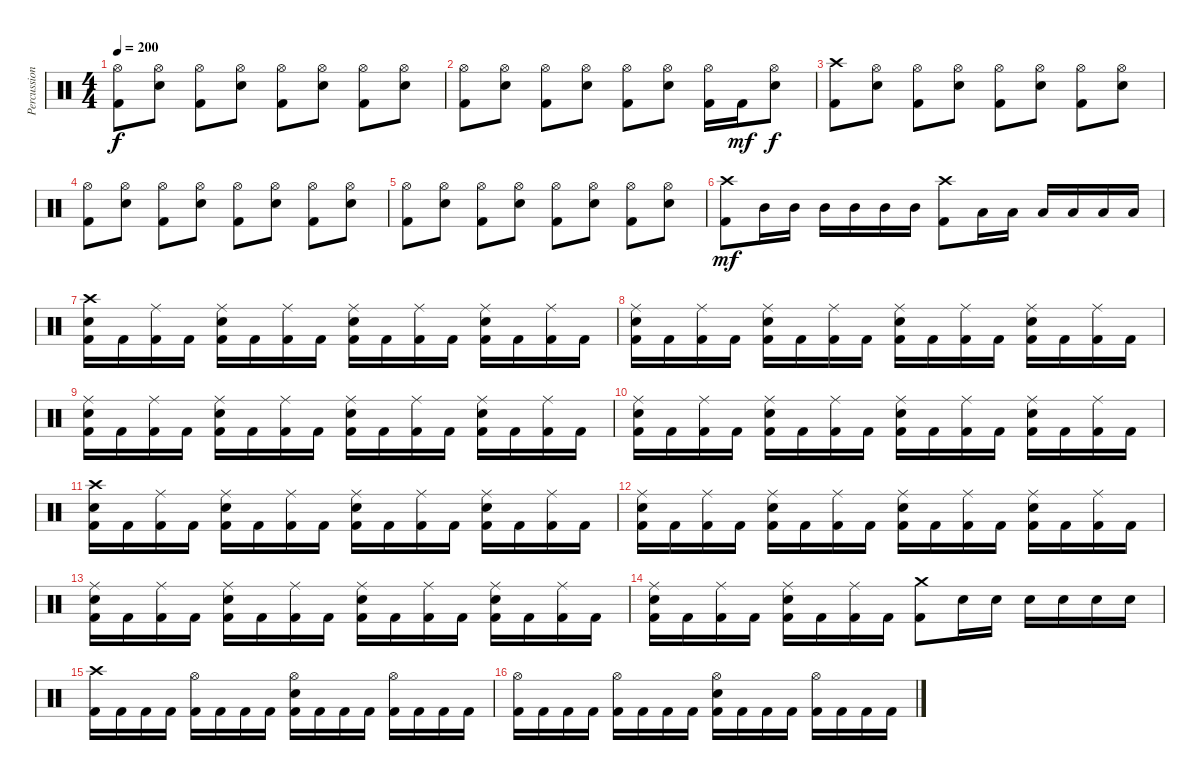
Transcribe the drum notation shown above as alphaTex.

\track ("Percussions" "Percussion") {instrument percussion}
\staff {score}
\articulation defaults
\ts (4 4)
\tempo 200
\clef neutral
\ks c
("Hi-Hat (open)" "Kick (hit) 2").8{dy f} ("Hi-Hat (open)" "Electric Snare (hit)").8 ("Hi-Hat (open)" "Kick (hit) 2").8 ("Hi-Hat (open)" "Electric Snare (hit)").8 ("Hi-Hat (open)" "Kick (hit) 2").8 ("Hi-Hat (open)" "Electric Snare (hit)").8 ("Hi-Hat (open)" "Kick (hit) 2").8 ("Hi-Hat (open)" "Electric Snare (hit)").8 |
("Hi-Hat (open)" "Kick (hit) 2").8 ("Hi-Hat (open)" "Electric Snare (hit)").8 ("Hi-Hat (open)" "Kick (hit) 2").8 ("Hi-Hat (open)" "Electric Snare (hit)").8 ("Hi-Hat (open)" "Kick (hit) 2").8 ("Hi-Hat (open)" "Electric Snare (hit)").8 ("Hi-Hat (open)" "Kick (hit) 2").16 "Kick (hit) 2".16{dy mf} ("Hi-Hat (open)" "Electric Snare (hit)").8{dy f} |
("Crash high (hit)" "Kick (hit) 2").8 ("Hi-Hat (open)" "Electric Snare (hit)").8 ("Hi-Hat (open)" "Kick (hit) 2").8 ("Hi-Hat (open)" "Electric Snare (hit)").8 ("Hi-Hat (open)" "Kick (hit) 2").8 ("Hi-Hat (open)" "Electric Snare (hit)").8 ("Hi-Hat (open)" "Kick (hit) 2").8 ("Hi-Hat (open)" "Electric Snare (hit)").8 |
("Hi-Hat (open)" "Kick (hit) 2").8 ("Hi-Hat (open)" "Electric Snare (hit)").8 ("Hi-Hat (open)" "Kick (hit) 2").8 ("Hi-Hat (open)" "Electric Snare (hit)").8 ("Hi-Hat (open)" "Kick (hit) 2").8 ("Hi-Hat (open)" "Electric Snare (hit)").8 ("Hi-Hat (open)" "Kick (hit) 2").8 ("Hi-Hat (open)" "Electric Snare (hit)").8 |
("Hi-Hat (open)" "Kick (hit) 2").8 ("Hi-Hat (open)" "Electric Snare (hit)").8 ("Hi-Hat (open)" "Kick (hit) 2").8 ("Hi-Hat (open)" "Electric Snare (hit)").8 ("Hi-Hat (open)" "Kick (hit) 2").8 ("Hi-Hat (open)" "Electric Snare (hit)").8 ("Hi-Hat (open)" "Kick (hit) 2").8 ("Hi-Hat (open)" "Electric Snare (hit)").8 |
("Crash high (hit)" "Kick (hit) 2").8{dy mf} "Mid Tom (hit)".16 "Mid Tom (hit)".16 "Mid Tom (hit)".16 "Mid Tom (hit)".16 "Mid Tom (hit)".16 "Mid Tom (hit)".16 ("Crash high (hit)" "Kick (hit) 2").8 "Low Tom (hit)".16 "Low Tom (hit)".16 "Low Tom (hit)".16 "Low Tom (hit)".16 "Low Tom (hit)".16 "Low Tom (hit)".16 |
("Crash high (hit)" "Electric Snare (hit)" "Kick (hit) 2").16 "Kick (hit) 2".16 ("Ride (middle)" "Kick (hit) 2").16 "Kick (hit) 2".16 ("Ride (middle)" "Electric Snare (hit)" "Kick (hit) 2").16 "Kick (hit) 2".16 ("Ride (middle)" "Kick (hit) 2").16 "Kick (hit) 2".16 ("Ride (middle)" "Electric Snare (hit)" "Kick (hit) 2").16 "Kick (hit) 2".16 ("Ride (middle)" "Kick (hit) 2").16 "Kick (hit) 2".16 ("Ride (middle)" "Electric Snare (hit)" "Kick (hit) 2").16 "Kick (hit) 2".16 ("Ride (middle)" "Kick (hit) 2").16 "Kick (hit) 2".16 |
("Ride (middle)" "Electric Snare (hit)" "Kick (hit) 2").16 "Kick (hit) 2".16 ("Ride (middle)" "Kick (hit) 2").16 "Kick (hit) 2".16 ("Ride (middle)" "Electric Snare (hit)" "Kick (hit) 2").16 "Kick (hit) 2".16 ("Ride (middle)" "Kick (hit) 2").16 "Kick (hit) 2".16 ("Ride (middle)" "Electric Snare (hit)" "Kick (hit) 2").16 "Kick (hit) 2".16 ("Ride (middle)" "Kick (hit) 2").16 "Kick (hit) 2".16 ("Ride (middle)" "Electric Snare (hit)" "Kick (hit) 2").16 "Kick (hit) 2".16 ("Ride (middle)" "Kick (hit) 2").16 "Kick (hit) 2".16 |
("Ride (middle)" "Electric Snare (hit)" "Kick (hit) 2").16 "Kick (hit) 2".16 ("Ride (middle)" "Kick (hit) 2").16 "Kick (hit) 2".16 ("Ride (middle)" "Electric Snare (hit)" "Kick (hit) 2").16 "Kick (hit) 2".16 ("Ride (middle)" "Kick (hit) 2").16 "Kick (hit) 2".16 ("Ride (middle)" "Electric Snare (hit)" "Kick (hit) 2").16 "Kick (hit) 2".16 ("Ride (middle)" "Kick (hit) 2").16 "Kick (hit) 2".16 ("Ride (middle)" "Electric Snare (hit)" "Kick (hit) 2").16 "Kick (hit) 2".16 ("Ride (middle)" "Kick (hit) 2").16 "Kick (hit) 2".16 |
("Ride (middle)" "Electric Snare (hit)" "Kick (hit) 2").16 "Kick (hit) 2".16 ("Ride (middle)" "Kick (hit) 2").16 "Kick (hit) 2".16 ("Ride (middle)" "Electric Snare (hit)" "Kick (hit) 2").16 "Kick (hit) 2".16 ("Ride (middle)" "Kick (hit) 2").16 "Kick (hit) 2".16 ("Ride (middle)" "Electric Snare (hit)" "Kick (hit) 2").16 "Kick (hit) 2".16 ("Ride (middle)" "Kick (hit) 2").16 "Kick (hit) 2".16 ("Ride (middle)" "Electric Snare (hit)" "Kick (hit) 2").16 "Kick (hit) 2".16 ("Ride (middle)" "Kick (hit) 2").16 "Kick (hit) 2".16 |
("Crash high (hit)" "Electric Snare (hit)" "Kick (hit) 2").16 "Kick (hit) 2".16 ("Ride (middle)" "Kick (hit) 2").16 "Kick (hit) 2".16 ("Ride (middle)" "Electric Snare (hit)" "Kick (hit) 2").16 "Kick (hit) 2".16 ("Ride (middle)" "Kick (hit) 2").16 "Kick (hit) 2".16 ("Ride (middle)" "Electric Snare (hit)" "Kick (hit) 2").16 "Kick (hit) 2".16 ("Ride (middle)" "Kick (hit) 2").16 "Kick (hit) 2".16 ("Ride (middle)" "Electric Snare (hit)" "Kick (hit) 2").16 "Kick (hit) 2".16 ("Ride (middle)" "Kick (hit) 2").16 "Kick (hit) 2".16 |
("Ride (middle)" "Electric Snare (hit)" "Kick (hit) 2").16 "Kick (hit) 2".16 ("Ride (middle)" "Kick (hit) 2").16 "Kick (hit) 2".16 ("Ride (middle)" "Electric Snare (hit)" "Kick (hit) 2").16 "Kick (hit) 2".16 ("Ride (middle)" "Kick (hit) 2").16 "Kick (hit) 2".16 ("Ride (middle)" "Electric Snare (hit)" "Kick (hit) 2").16 "Kick (hit) 2".16 ("Ride (middle)" "Kick (hit) 2").16 "Kick (hit) 2".16 ("Ride (middle)" "Electric Snare (hit)" "Kick (hit) 2").16 "Kick (hit) 2".16 ("Ride (middle)" "Kick (hit) 2").16 "Kick (hit) 2".16 |
("Ride (middle)" "Electric Snare (hit)" "Kick (hit) 2").16 "Kick (hit) 2".16 ("Ride (middle)" "Kick (hit) 2").16 "Kick (hit) 2".16 ("Ride (middle)" "Electric Snare (hit)" "Kick (hit) 2").16 "Kick (hit) 2".16 ("Ride (middle)" "Kick (hit) 2").16 "Kick (hit) 2".16 ("Ride (middle)" "Electric Snare (hit)" "Kick (hit) 2").16 "Kick (hit) 2".16 ("Ride (middle)" "Kick (hit) 2").16 "Kick (hit) 2".16 ("Ride (middle)" "Electric Snare (hit)" "Kick (hit) 2").16 "Kick (hit) 2".16 ("Ride (middle)" "Kick (hit) 2").16 "Kick (hit) 2".16 |
("Ride (middle)" "Electric Snare (hit)" "Kick (hit) 2").16 "Kick (hit) 2".16 ("Ride (middle)" "Kick (hit) 2").16 "Kick (hit) 2".16 ("Ride (middle)" "Electric Snare (hit)" "Kick (hit) 2").16 "Kick (hit) 2".16 ("Ride (middle)" "Kick (hit) 2").16 "Kick (hit) 2".16 ("Crash medium (hit)" "Kick (hit) 2").8 "Electric Snare (hit)".16 "Electric Snare (hit)".16 "Electric Snare (hit)".16 "Electric Snare (hit)".16 "Electric Snare (hit)".16 "Electric Snare (hit)".16 |
("Crash high (hit)" "Kick (hit) 2").16 "Kick (hit) 2".16 "Kick (hit) 2".16 "Kick (hit) 2".16 ("Hi-Hat (open)" "Kick (hit) 2").16 "Kick (hit) 2".16 "Kick (hit) 2".16 "Kick (hit) 2".16 ("Hi-Hat (open)" "Electric Snare (hit)" "Kick (hit) 2").16 "Kick (hit) 2".16 "Kick (hit) 2".16 "Kick (hit) 2".16 ("Hi-Hat (open)" "Kick (hit) 2").16 "Kick (hit) 2".16 "Kick (hit) 2".16 "Kick (hit) 2".16 |
("Hi-Hat (open)" "Kick (hit) 2").16 "Kick (hit) 2".16 "Kick (hit) 2".16 "Kick (hit) 2".16 ("Hi-Hat (open)" "Kick (hit) 2").16 "Kick (hit) 2".16 "Kick (hit) 2".16 "Kick (hit) 2".16 ("Hi-Hat (open)" "Electric Snare (hit)" "Kick (hit) 2").16 "Kick (hit) 2".16 "Kick (hit) 2".16 "Kick (hit) 2".16 ("Hi-Hat (open)" "Kick (hit) 2").16 "Kick (hit) 2".16 "Kick (hit) 2".16 "Kick (hit) 2".16
